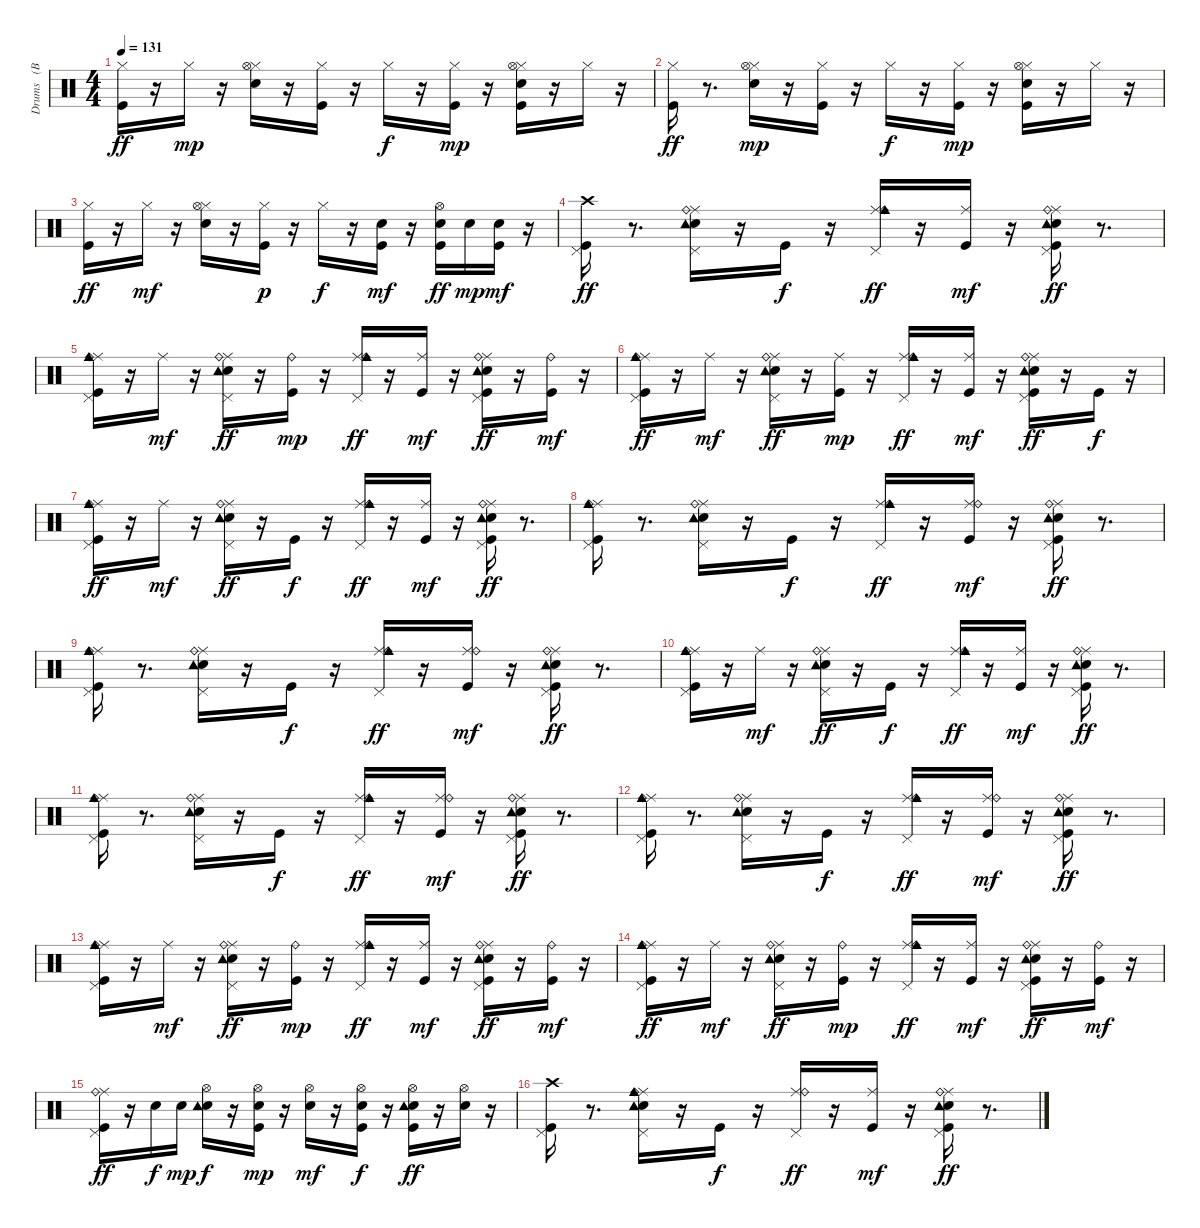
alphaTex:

\track ("Drums   (BB)" "Drums   (B") {instrument percussion}
\staff {score}
\articulation defaults
\ts (4 4)
\tempo 131
\clef neutral
\ks c
("Kick (hit)" "Hi-Hat (closed)").16{dy ff} r.16 "Hi-Hat (closed)".16{dy mp} r.16 ("Snare (hit) 2" "Hi-Hat (closed)" "Hi-Hat (open)").16 r.16 ("Kick (hit)" "Hi-Hat (closed)").16 r.16 "Hi-Hat (closed)".16{dy f} r.16 ("Kick (hit)" "Hi-Hat (closed)").16{dy mp} r.16 ("Kick (hit)" "Snare (hit) 2" "Hi-Hat (closed)" "Hi-Hat (open)").16 r.16 "Hi-Hat (closed)".16 r.16 |
("Kick (hit)" "Hi-Hat (closed)").16{dy ff} r.8{d} ("Snare (hit) 2" "Hi-Hat (closed)" "Hi-Hat (open)").16{dy mp} r.16 ("Kick (hit)" "Hi-Hat (closed)").16 r.16 "Hi-Hat (closed)".16{dy f} r.16 ("Kick (hit)" "Hi-Hat (closed)").16{dy mp} r.16 ("Kick (hit)" "Snare (hit) 2" "Hi-Hat (closed)" "Hi-Hat (open)").16 r.16 "Hi-Hat (closed)".16 r.16 |
("Kick (hit)" "Hi-Hat (closed)").16{dy ff} r.16 "Hi-Hat (closed)".16{dy mf} r.16 ("Snare (hit) 2" "Hi-Hat (closed)" "Hi-Hat (open)").16 r.16 ("Kick (hit)" "Hi-Hat (closed)").16{dy p} r.16 "Hi-Hat (closed)".16{dy f} r.16 ("Kick (hit)" "Snare (hit) 2").16{dy mf} r.16 ("Kick (hit)" "Snare (hit) 2" "Hi-Hat (open)").16{dy ff} "Snare (hit) 2".16{dy mp} ("Kick (hit)" "Snare (hit) 2").16{dy mf} r.16 |
("Kick (hit)" "Pedal Hi-Hat (hit)" "Crash high (hit)").16{dy ff} r.8{d} ("Snare (hit) 2" "Tambourine (hit)" "Pedal Hi-Hat (hit)" "Ride (middle)" "Ride (bell)").16 r.16 "Kick (hit)".16{dy f} r.16 ("Pedal Hi-Hat (hit)" "Ride (middle)" "Ride (bell)" "Cowbell medium (hit)").16{dy ff} r.16 ("Kick (hit)" "Ride (middle)").16{dy mf} r.16 ("Kick (hit)" "Snare (hit) 2" "Tambourine (hit)" "Pedal Hi-Hat (hit)" "Ride (middle)" "Ride (bell)").16{dy ff} r.8{d} |
("Kick (hit)" "Pedal Hi-Hat (hit)" "Ride (middle)" "Ride (bell)" "Cowbell medium (hit)").16 r.16 "Ride (middle)".16{dy mf} r.16 ("Snare (hit) 2" "Tambourine (hit)" "Pedal Hi-Hat (hit)" "Ride (middle)" "Ride (bell)").16{dy ff} r.16 ("Kick (hit)" "Ride (bell)").16{dy mp} r.16 ("Pedal Hi-Hat (hit)" "Ride (middle)" "Ride (bell)" "Cowbell medium (hit)").16{dy ff} r.16 ("Kick (hit)" "Ride (middle)").16{dy mf} r.16 ("Kick (hit)" "Snare (hit) 2" "Tambourine (hit)" "Pedal Hi-Hat (hit)" "Ride (middle)" "Ride (bell)").16{dy ff} r.16 ("Kick (hit)" "Ride (bell)").16{dy mf} r.16 |
("Kick (hit)" "Pedal Hi-Hat (hit)" "Ride (middle)" "Ride (bell)" "Cowbell medium (hit)").16{dy ff} r.16 "Ride (middle)".16{dy mf} r.16 ("Snare (hit) 2" "Tambourine (hit)" "Pedal Hi-Hat (hit)" "Ride (middle)" "Ride (bell)").16{dy ff} r.16 ("Kick (hit)" "Ride (middle)").16{dy mp} r.16 ("Pedal Hi-Hat (hit)" "Ride (middle)" "Ride (bell)" "Cowbell medium (hit)").16{dy ff} r.16 ("Kick (hit)" "Ride (middle)").16{dy mf} r.16 ("Kick (hit)" "Snare (hit) 2" "Tambourine (hit)" "Pedal Hi-Hat (hit)" "Ride (middle)" "Ride (bell)").16{dy ff} r.16 "Kick (hit)".16{dy f} r.16 |
("Kick (hit)" "Pedal Hi-Hat (hit)" "Ride (middle)" "Ride (bell)" "Cowbell medium (hit)").16{dy ff} r.16 "Ride (middle)".16{dy mf} r.16 ("Snare (hit) 2" "Tambourine (hit)" "Pedal Hi-Hat (hit)" "Ride (middle)" "Ride (bell)").16{dy ff} r.16 "Kick (hit)".16{dy f} r.16 ("Pedal Hi-Hat (hit)" "Ride (middle)" "Ride (bell)" "Cowbell medium (hit)").16{dy ff} r.16 ("Kick (hit)" "Ride (middle)").16{dy mf} r.16 ("Kick (hit)" "Snare (hit) 2" "Tambourine (hit)" "Pedal Hi-Hat (hit)" "Ride (middle)" "Ride (bell)").16{dy ff} r.8{d} |
("Kick (hit)" "Pedal Hi-Hat (hit)" "Ride (middle)" "Ride (bell)" "Cowbell medium (hit)").16 r.8{d} ("Snare (hit) 2" "Tambourine (hit)" "Pedal Hi-Hat (hit)" "Ride (middle)" "Ride (bell)").16 r.16 "Kick (hit)".16{dy f} r.16 ("Pedal Hi-Hat (hit)" "Ride (middle)" "Ride (bell)" "Cowbell medium (hit)").16{dy ff} r.16 ("Kick (hit)" "Ride (middle)" "Ride (bell)").16{dy mf} r.16 ("Kick (hit)" "Snare (hit) 2" "Tambourine (hit)" "Pedal Hi-Hat (hit)" "Ride (middle)" "Ride (bell)").16{dy ff} r.8{d} |
("Kick (hit)" "Pedal Hi-Hat (hit)" "Ride (middle)" "Ride (bell)" "Cowbell medium (hit)").16 r.8{d} ("Snare (hit) 2" "Tambourine (hit)" "Pedal Hi-Hat (hit)" "Ride (middle)" "Ride (bell)").16 r.16 "Kick (hit)".16{dy f} r.16 ("Pedal Hi-Hat (hit)" "Ride (middle)" "Ride (bell)" "Cowbell medium (hit)").16{dy ff} r.16 ("Kick (hit)" "Ride (middle)" "Ride (bell)").16{dy mf} r.16 ("Kick (hit)" "Snare (hit) 2" "Tambourine (hit)" "Pedal Hi-Hat (hit)" "Ride (middle)" "Ride (bell)").16{dy ff} r.8{d} |
("Kick (hit)" "Pedal Hi-Hat (hit)" "Ride (middle)" "Ride (bell)" "Cowbell medium (hit)").16 r.16 "Ride (middle)".16{dy mf} r.16 ("Snare (hit) 2" "Tambourine (hit)" "Pedal Hi-Hat (hit)" "Ride (middle)" "Ride (bell)").16{dy ff} r.16 "Kick (hit)".16{dy f} r.16 ("Pedal Hi-Hat (hit)" "Ride (middle)" "Ride (bell)" "Cowbell medium (hit)").16{dy ff} r.16 ("Kick (hit)" "Ride (middle)").16{dy mf} r.16 ("Kick (hit)" "Snare (hit) 2" "Tambourine (hit)" "Pedal Hi-Hat (hit)" "Ride (middle)" "Ride (bell)").16{dy ff} r.8{d} |
("Kick (hit)" "Pedal Hi-Hat (hit)" "Ride (middle)" "Ride (bell)" "Cowbell medium (hit)").16 r.8{d} ("Snare (hit) 2" "Tambourine (hit)" "Pedal Hi-Hat (hit)" "Ride (middle)" "Ride (bell)").16 r.16 "Kick (hit)".16{dy f} r.16 ("Pedal Hi-Hat (hit)" "Ride (middle)" "Ride (bell)" "Cowbell medium (hit)").16{dy ff} r.16 ("Kick (hit)" "Ride (middle)" "Ride (bell)").16{dy mf} r.16 ("Kick (hit)" "Snare (hit) 2" "Tambourine (hit)" "Pedal Hi-Hat (hit)" "Ride (middle)" "Ride (bell)").16{dy ff} r.8{d} |
("Kick (hit)" "Pedal Hi-Hat (hit)" "Ride (middle)" "Ride (bell)" "Cowbell medium (hit)").16 r.8{d} ("Snare (hit) 2" "Tambourine (hit)" "Pedal Hi-Hat (hit)" "Ride (middle)" "Ride (bell)").16 r.16 "Kick (hit)".16{dy f} r.16 ("Pedal Hi-Hat (hit)" "Ride (middle)" "Ride (bell)" "Cowbell medium (hit)").16{dy ff} r.16 ("Kick (hit)" "Ride (middle)" "Ride (bell)").16{dy mf} r.16 ("Kick (hit)" "Snare (hit) 2" "Tambourine (hit)" "Pedal Hi-Hat (hit)" "Ride (middle)" "Ride (bell)").16{dy ff} r.8{d} |
("Kick (hit)" "Pedal Hi-Hat (hit)" "Ride (middle)" "Ride (bell)" "Cowbell medium (hit)").16 r.16 "Ride (middle)".16{dy mf} r.16 ("Snare (hit) 2" "Tambourine (hit)" "Pedal Hi-Hat (hit)" "Ride (middle)" "Ride (bell)").16{dy ff} r.16 ("Kick (hit)" "Ride (bell)").16{dy mp} r.16 ("Pedal Hi-Hat (hit)" "Ride (middle)" "Ride (bell)" "Cowbell medium (hit)").16{dy ff} r.16 ("Kick (hit)" "Ride (middle)").16{dy mf} r.16 ("Kick (hit)" "Snare (hit) 2" "Tambourine (hit)" "Pedal Hi-Hat (hit)" "Ride (middle)" "Ride (bell)").16{dy ff} r.16 ("Kick (hit)" "Ride (bell)").16{dy mf} r.16 |
("Kick (hit)" "Pedal Hi-Hat (hit)" "Ride (middle)" "Ride (bell)" "Cowbell medium (hit)").16{dy ff} r.16 "Ride (middle)".16{dy mf} r.16 ("Snare (hit) 2" "Tambourine (hit)" "Pedal Hi-Hat (hit)" "Ride (middle)" "Ride (bell)").16{dy ff} r.16 ("Kick (hit)" "Ride (bell)").16{dy mp} r.16 ("Pedal Hi-Hat (hit)" "Ride (middle)" "Ride (bell)" "Cowbell medium (hit)").16{dy ff} r.16 ("Kick (hit)" "Ride (middle)").16{dy mf} r.16 ("Kick (hit)" "Snare (hit) 2" "Tambourine (hit)" "Pedal Hi-Hat (hit)" "Ride (middle)" "Ride (bell)").16{dy ff} r.16 ("Kick (hit)" "Ride (bell)").16{dy mf} r.16 |
("Kick (hit)" "Pedal Hi-Hat (hit)" "Ride (middle)" "Ride (bell)").16{dy ff} r.16 "Snare (hit) 2".16{dy f} "Snare (hit) 2".16{dy mp} ("Snare (hit) 2" "Tambourine (hit)" "Hi-Hat (open)").16{dy f} r.16 ("Kick (hit)" "Snare (hit) 2" "Hi-Hat (open)").16{dy mp} r.16 ("Snare (hit) 2" "Hi-Hat (open)").16{dy mf} r.16 ("Kick (hit)" "Snare (hit) 2" "Hi-Hat (open)").16{dy f} r.16 ("Kick (hit)" "Snare (hit) 2" "Tambourine (hit)" "Hi-Hat (open)").16{dy ff} r.16 ("Snare (hit) 2" "Hi-Hat (open)").16 r.16 |
("Kick (hit)" "Pedal Hi-Hat (hit)" "Crash high (hit)").16 r.8{d} ("Snare (hit) 2" "Tambourine (hit)" "Pedal Hi-Hat (hit)" "Ride (middle)" "Ride (bell)" "Cowbell medium (hit)").16 r.16 "Kick (hit)".16{dy f} r.16 ("Pedal Hi-Hat (hit)" "Ride (middle)" "Ride (bell)").16{dy ff} r.16 ("Kick (hit)" "Ride (middle)").16{dy mf} r.16 ("Kick (hit)" "Snare (hit) 2" "Tambourine (hit)" "Pedal Hi-Hat (hit)" "Ride (middle)" "Ride (bell)").16{dy ff} r.8{d}
